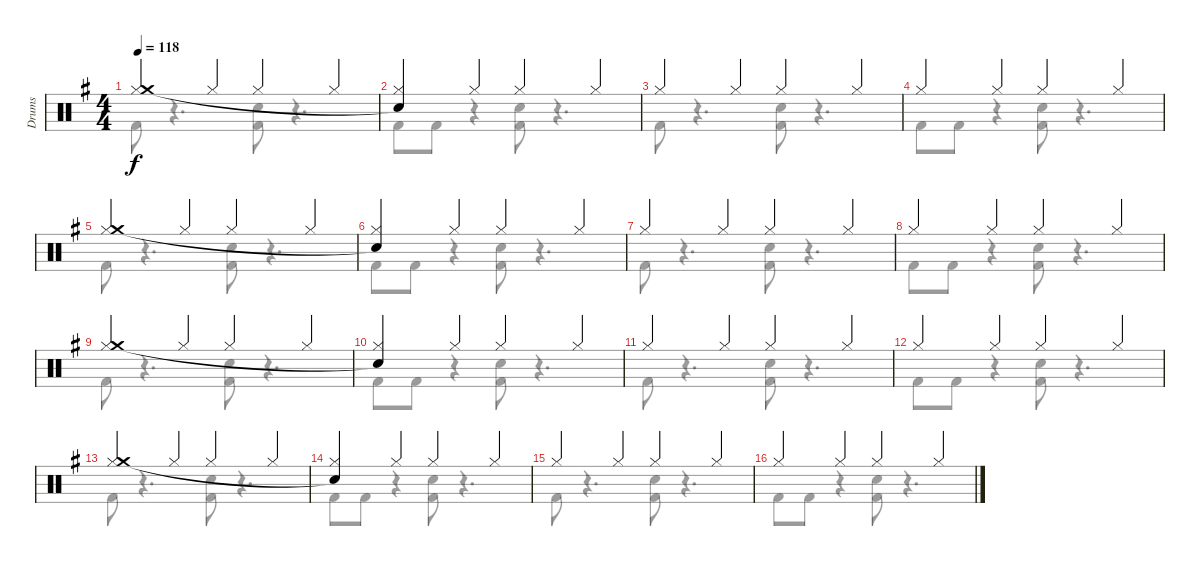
\track ("Drums" "Drums") {instrument percussion}
\staff {score}
\articulation defaults
\voice
\ts (4 4)
\tempo 118
\clef neutral
\ks eminor
("Hi-Hat (closed)" "Crash medium (hit)").4{dy f} "Hi-Hat (closed)".4 "Hi-Hat (closed)".4 "Hi-Hat (closed)".4 |
("Hi-Hat (closed)" "Snare (hit)"{t}).4 "Hi-Hat (closed)".4 "Hi-Hat (closed)".4 "Hi-Hat (closed)".4 |
"Hi-Hat (closed)".4 "Hi-Hat (closed)".4 "Hi-Hat (closed)".4 "Hi-Hat (closed)".4 |
"Hi-Hat (closed)".4 "Hi-Hat (closed)".4 "Hi-Hat (closed)".4 "Hi-Hat (closed)".4 |
("Hi-Hat (closed)" "Crash medium (hit)").4 "Hi-Hat (closed)".4 "Hi-Hat (closed)".4 "Hi-Hat (closed)".4 |
("Hi-Hat (closed)" "Snare (hit)"{t}).4 "Hi-Hat (closed)".4 "Hi-Hat (closed)".4 "Hi-Hat (closed)".4 |
"Hi-Hat (closed)".4 "Hi-Hat (closed)".4 "Hi-Hat (closed)".4 "Hi-Hat (closed)".4 |
"Hi-Hat (closed)".4 "Hi-Hat (closed)".4 "Hi-Hat (closed)".4 "Hi-Hat (closed)".4 |
("Hi-Hat (closed)" "Crash medium (hit)").4 "Hi-Hat (closed)".4 "Hi-Hat (closed)".4 "Hi-Hat (closed)".4 |
("Hi-Hat (closed)" "Snare (hit)"{t}).4 "Hi-Hat (closed)".4 "Hi-Hat (closed)".4 "Hi-Hat (closed)".4 |
"Hi-Hat (closed)".4 "Hi-Hat (closed)".4 "Hi-Hat (closed)".4 "Hi-Hat (closed)".4 |
"Hi-Hat (closed)".4 "Hi-Hat (closed)".4 "Hi-Hat (closed)".4 "Hi-Hat (closed)".4 |
("Hi-Hat (closed)" "Crash medium (hit)").4 "Hi-Hat (closed)".4 "Hi-Hat (closed)".4 "Hi-Hat (closed)".4 |
("Hi-Hat (closed)" "Snare (hit)"{t}).4 "Hi-Hat (closed)".4 "Hi-Hat (closed)".4 "Hi-Hat (closed)".4 |
"Hi-Hat (closed)".4 "Hi-Hat (closed)".4 "Hi-Hat (closed)".4 "Hi-Hat (closed)".4 |
"Hi-Hat (closed)".4 "Hi-Hat (closed)".4 "Hi-Hat (closed)".4 "Hi-Hat (closed)".4
\voice
\clef neutral
\ottava regular
\simile none
\ks eminor "Kick (hit) 2".8{dy f}
r.4{d} ("Kick (hit) 2" "Electric Snare (hit)").8 r.4{d} |
"Kick (hit) 2".8 "Kick (hit) 2".8 r.4 ("Kick (hit) 2" "Electric Snare (hit)").8 r.4{d} |
"Kick (hit) 2".8 r.4{d} ("Kick (hit) 2" "Electric Snare (hit)").8 r.4{d} |
"Kick (hit) 2".8 "Kick (hit) 2".8 r.4 ("Kick (hit) 2" "Electric Snare (hit)").8 r.4{d} |
"Kick (hit) 2".8 r.4{d} ("Kick (hit) 2" "Electric Snare (hit)").8 r.4{d} |
"Kick (hit) 2".8 "Kick (hit) 2".8 r.4 ("Kick (hit) 2" "Electric Snare (hit)").8 r.4{d} |
"Kick (hit) 2".8 r.4{d} ("Kick (hit) 2" "Electric Snare (hit)").8 r.4{d} |
"Kick (hit) 2".8 "Kick (hit) 2".8 r.4 ("Kick (hit) 2" "Electric Snare (hit)").8 r.4{d} |
"Kick (hit) 2".8 r.4{d} ("Kick (hit) 2" "Electric Snare (hit)").8 r.4{d} |
"Kick (hit) 2".8 "Kick (hit) 2".8 r.4 ("Kick (hit) 2" "Electric Snare (hit)").8 r.4{d} |
"Kick (hit) 2".8 r.4{d} ("Kick (hit) 2" "Electric Snare (hit)").8 r.4{d} |
"Kick (hit) 2".8 "Kick (hit) 2".8 r.4 ("Kick (hit) 2" "Electric Snare (hit)").8 r.4{d} |
"Kick (hit) 2".8 r.4{d} ("Kick (hit) 2" "Electric Snare (hit)").8 r.4{d} |
"Kick (hit) 2".8 "Kick (hit) 2".8 r.4 ("Kick (hit) 2" "Electric Snare (hit)").8 r.4{d} |
"Kick (hit) 2".8 r.4{d} ("Kick (hit) 2" "Electric Snare (hit)").8 r.4{d} |
"Kick (hit) 2".8 "Kick (hit) 2".8 r.4 ("Kick (hit) 2" "Electric Snare (hit)").8 r.4{d}
